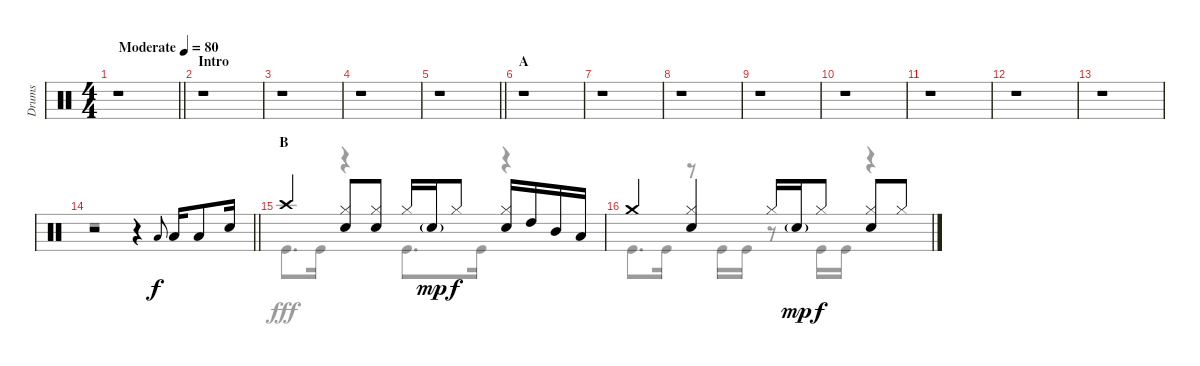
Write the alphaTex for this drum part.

\track ("Drums" "Drums") {instrument percussion}
\staff {score}
\articulation defaults
\voice
\ts (4 4)
\tempo (80 "Moderate")
\clef neutral
\barLineRight lightlight
\ks c
r.1{dy f} |
\section ("" "Intro")
r.1 |
r.1 |
r.1 |
\barLineRight lightlight
r.1 |
\section ("" "A")
r.1 |
r.1 |
r.1 |
r.1 |
r.1 |
r.1 |
r.1 |
r.1 |
\barLineRight lightlight
r.2 r.4 "Low Tom (hit)".8{gr onbeat} "Low Tom (hit)".16 "Low Tom (hit)".8 "Snare (hit) 2".16 |
\section ("" "B")
"Crash high (hit)".4 ("Hi-Hat (closed)" "Snare (hit) 2").8 ("Hi-Hat (closed)" "Snare (hit) 2").8 "Hi-Hat (closed)".16 "Snare (hit) 2"{g}.16{dy mp} "Hi-Hat (closed)".8{dy f} ("Hi-Hat (closed)" "Snare (hit) 2").16 "High Tom (hit)".16 "Mid Tom (hit)".16 "Low Tom (hit)".16 |
"Crash medium (hit)".4 ("Hi-Hat (closed)" "Snare (hit) 2").4 "Hi-Hat (closed)".16 "Snare (hit) 2"{g}.16{dy mp} "Hi-Hat (closed)".8{dy f} ("Hi-Hat (closed)" "Snare (hit) 2").8 "Hi-Hat (closed)".8
\voice
\clef neutral
\ottava regular
\simile none
\barLineRight lightlight
\ks c
r.1{dy fff} |
r.1 |
r.1 |
r.1 |
\barLineRight lightlight
r.1 |
r.1 |
r.1 |
r.1 |
r.1 |
r.1 |
r.1 |
r.1 |
r.1 |
\barLineRight lightlight
r.1 |
"Kick (hit)".8{d} "Kick (hit)".16 r.4 "Kick (hit)".8{d} "Kick (hit)".16 r.4 |
"Kick (hit)".8{d} "Kick (hit)".16 r.8 "Kick (hit)".16 "Kick (hit)".16 r.8 "Kick (hit)".16 "Kick (hit)".16 r.4
